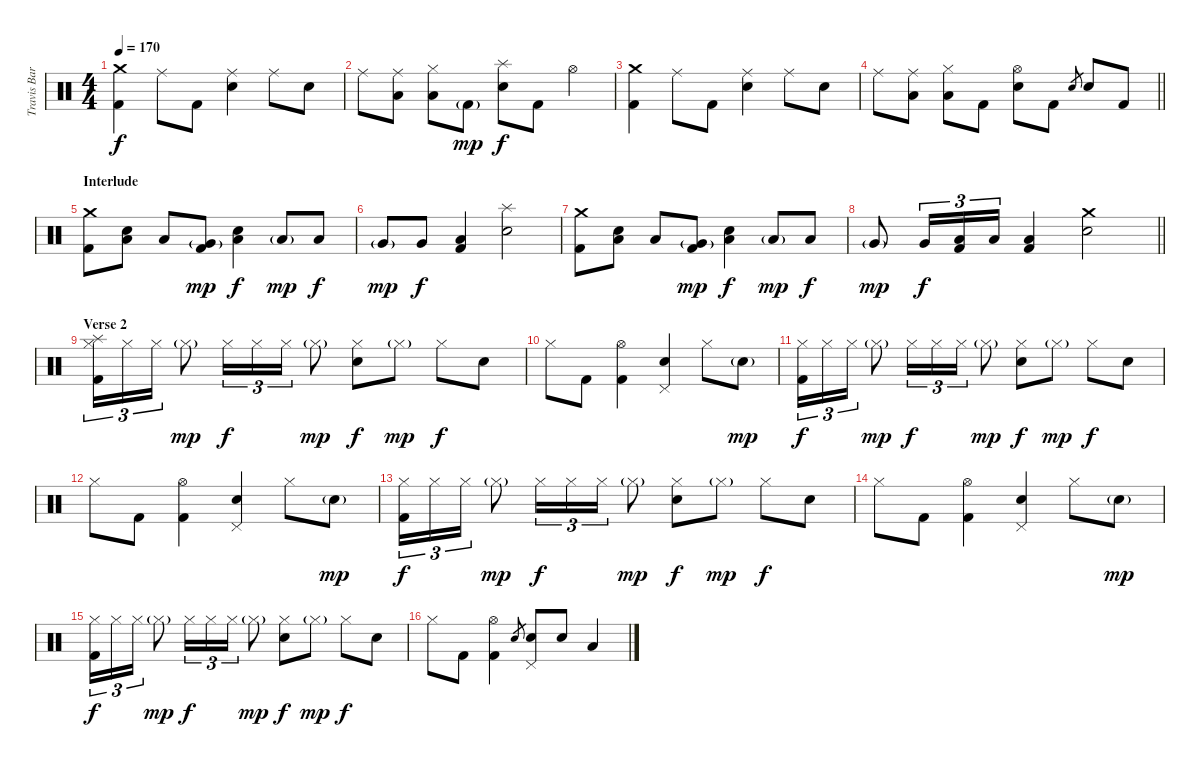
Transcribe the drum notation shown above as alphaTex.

\track ("Travis Barker - Drums" "Travis Bar") {instrument percussion}
\staff {score}
\articulation defaults
\ts (4 4)
\tempo 170
\clef neutral
\ks c
("Crash medium (hit)" "Kick (hit) 2").4{dy f} "Ride (middle)".8 "Kick (hit) 2".8 ("Ride (middle)" "Electric Snare (hit)").4 "Ride (middle)".8 "Electric Snare (hit)".8 |
"Ride (middle)".8 ("Ride (middle)" "Low Tom (hit)").8 ("Hi-Hat (closed)" "Low Tom (hit)").8 "Kick (hit) 2"{g}.8{dy mp} ("Splash (hit)" "Electric Snare (hit)").8{dy f} "Kick (hit) 2".8 "Hi-Hat (open)".4 |
("Crash medium (hit)" "Kick (hit) 2").4 "Ride (middle)".8 "Kick (hit) 2".8 ("Ride (middle)" "Electric Snare (hit)").4 "Ride (middle)".8 "Electric Snare (hit)".8 |
\barLineRight lightlight "Ride (middle)".8
("Ride (middle)" "Low Tom (hit)").8 ("Hi-Hat (closed)" "Low Tom (hit)").8 "Kick (hit) 2".8 ("Hi-Hat (open)" "Electric Snare (hit)").8 "Kick (hit) 2".8 "Electric Snare (hit)".8{gr} "Electric Snare (hit)".8 "Kick (hit) 2".8 |
\section ("" "Interlude")
("Crash medium (hit)" "Kick (hit) 2").8 ("Low Floor Tom (hit)" "Electric Snare (hit)").8 "Low Tom (hit)".8 ("Very Low Tom (hit)"{g} "Kick (hit) 2").8{dy mp} ("Low Floor Tom (hit)" "Electric Snare (hit)").4{dy f} "Low Tom (hit)"{g}.8{dy mp} "Low Tom (hit)".8{dy f} |
"Very Low Tom (hit)"{g}.8{dy mp} "Very Low Tom (hit)".8{dy f} ("Low Floor Tom (hit)" "Kick (hit) 2").4 ("Splash (hit)" "Electric Snare (hit)").2 |
("Crash medium (hit)" "Kick (hit) 2").8 ("Low Floor Tom (hit)" "Electric Snare (hit)").8 "Low Tom (hit)".8 ("Very Low Tom (hit)"{g} "Kick (hit) 2").8{dy mp} ("Low Floor Tom (hit)" "Electric Snare (hit)").4{dy f} "Low Tom (hit)"{g}.8{dy mp} "Low Tom (hit)".8{dy f} |
\barLineRight lightlight "Very Low Tom (hit)"{g}.8{dy mp} "Very Low Tom (hit)".16{tu (3 2) dy f}
("Low Floor Tom (hit)" "Kick (hit) 2").16{tu (3 2)} "Low Floor Tom (hit)".16{tu (3 2)} ("Low Floor Tom (hit)" "Kick (hit) 2").4 ("Crash medium (hit)" "Electric Snare (hit)").2 |
\section ("" "Verse 2")
("Hi-Hat (closed)" "Splash (hit)" "Kick (hit) 2").16{tu (3 2)} "Hi-Hat (closed)".16{tu (3 2)} "Hi-Hat (closed)".16{tu (3 2)} "Hi-Hat (closed)"{g}.8{dy mp} "Hi-Hat (closed)".16{tu (3 2) dy f} "Hi-Hat (closed)".16{tu (3 2)} "Hi-Hat (closed)".16{tu (3 2)} "Hi-Hat (closed)"{g}.8{dy mp} ("Hi-Hat (closed)" "Electric Snare (hit)").8{dy f} "Hi-Hat (closed)"{g}.8{dy mp} "Hi-Hat (closed)".8{dy f} "Electric Snare (hit)".8 |
"Hi-Hat (closed)".8 "Kick (hit) 2".8 ("Hi-Hat (open)" "Kick (hit) 2").4 ("Pedal Hi-Hat (hit)" "Electric Snare (hit)").4 "Hi-Hat (closed)".8 "Electric Snare (hit)"{g}.8{dy mp} |
("Hi-Hat (closed)" "Kick (hit) 2").16{tu (3 2) dy f} "Hi-Hat (closed)".16{tu (3 2)} "Hi-Hat (closed)".16{tu (3 2)} "Hi-Hat (closed)"{g}.8{dy mp} "Hi-Hat (closed)".16{tu (3 2) dy f} "Hi-Hat (closed)".16{tu (3 2)} "Hi-Hat (closed)".16{tu (3 2)} "Hi-Hat (closed)"{g}.8{dy mp} ("Hi-Hat (closed)" "Electric Snare (hit)").8{dy f} "Hi-Hat (closed)"{g}.8{dy mp} "Hi-Hat (closed)".8{dy f} "Electric Snare (hit)".8 |
"Hi-Hat (closed)".8 "Kick (hit) 2".8 ("Hi-Hat (open)" "Kick (hit) 2").4 ("Pedal Hi-Hat (hit)" "Electric Snare (hit)").4 "Hi-Hat (closed)".8 "Electric Snare (hit)"{g}.8{dy mp} |
("Hi-Hat (closed)" "Kick (hit) 2").16{tu (3 2) dy f} "Hi-Hat (closed)".16{tu (3 2)} "Hi-Hat (closed)".16{tu (3 2)} "Hi-Hat (closed)"{g}.8{dy mp} "Hi-Hat (closed)".16{tu (3 2) dy f} "Hi-Hat (closed)".16{tu (3 2)} "Hi-Hat (closed)".16{tu (3 2)} "Hi-Hat (closed)"{g}.8{dy mp} ("Hi-Hat (closed)" "Electric Snare (hit)").8{dy f} "Hi-Hat (closed)"{g}.8{dy mp} "Hi-Hat (closed)".8{dy f} "Electric Snare (hit)".8 |
"Hi-Hat (closed)".8 "Kick (hit) 2".8 ("Hi-Hat (open)" "Kick (hit) 2").4 ("Pedal Hi-Hat (hit)" "Electric Snare (hit)").4 "Hi-Hat (closed)".8 "Electric Snare (hit)"{g}.8{dy mp} |
("Hi-Hat (closed)" "Kick (hit) 2").16{tu (3 2) dy f} "Hi-Hat (closed)".16{tu (3 2)} "Hi-Hat (closed)".16{tu (3 2)} "Hi-Hat (closed)"{g}.8{dy mp} "Hi-Hat (closed)".16{tu (3 2) dy f} "Hi-Hat (closed)".16{tu (3 2)} "Hi-Hat (closed)".16{tu (3 2)} "Hi-Hat (closed)"{g}.8{dy mp} ("Hi-Hat (closed)" "Electric Snare (hit)").8{dy f} "Hi-Hat (closed)"{g}.8{dy mp} "Hi-Hat (closed)".8{dy f} "Electric Snare (hit)".8 |
"Hi-Hat (closed)".8 "Kick (hit) 2".8 ("Hi-Hat (open)" "Kick (hit) 2").4 "Electric Snare (hit)".8{gr} ("Pedal Hi-Hat (hit)" "Electric Snare (hit)").8 "Electric Snare (hit)".8 "Low Tom (hit)".4
